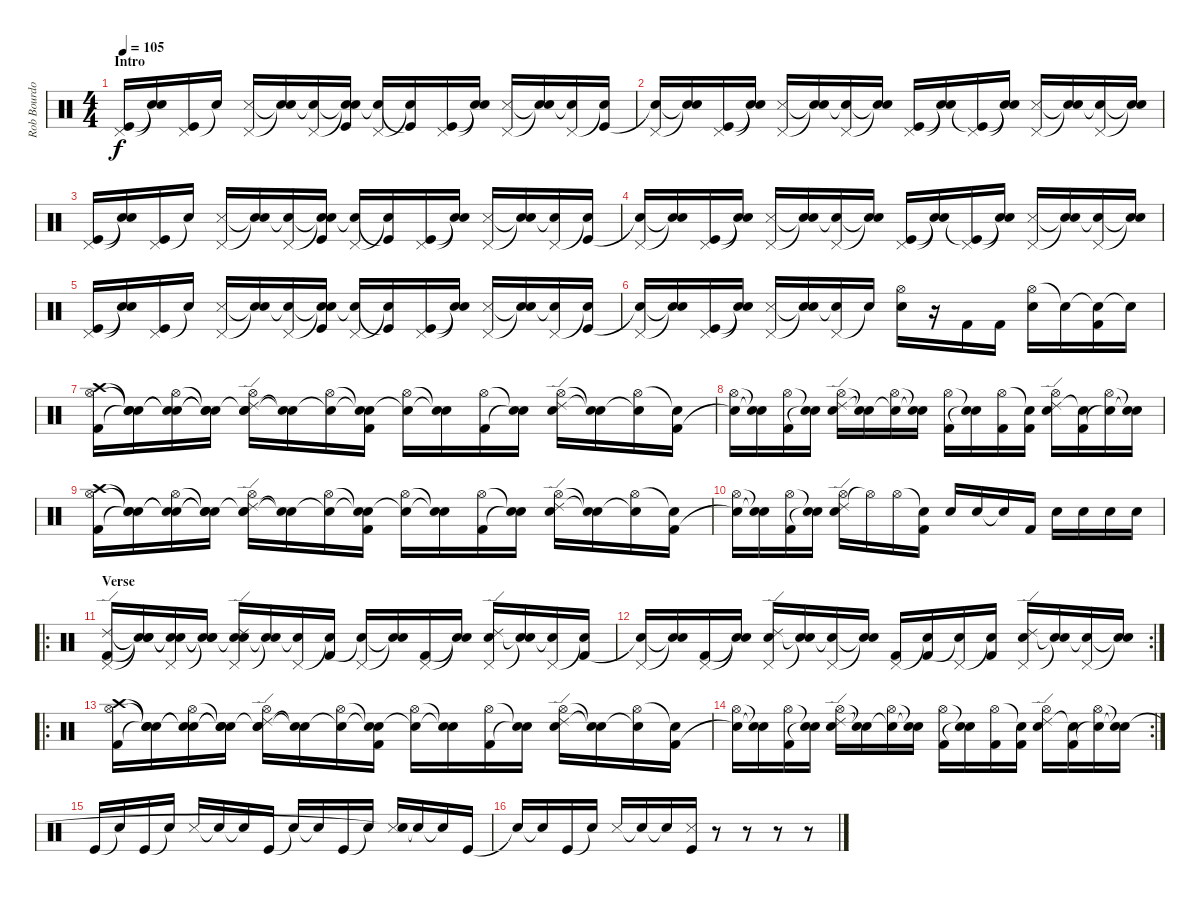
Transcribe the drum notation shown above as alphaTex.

\track ("Rob Bourdon" "Rob Bourdo") {instrument percussion}
\staff {score}
\articulation defaults
\ts (4 4)
\section ("" "Intro")
\tempo 105
\clef neutral
\ks c
("Pedal Hi-Hat (hit)" "Kick (hit)").16{dy f volume 5} ("Snare (hit)"{t} "Snare (hit)"{t}).16 ("Pedal Hi-Hat (hit)" "Kick (hit)").16 "Snare (hit)"{t}.16 ("Pedal Hi-Hat (hit)" "Snare (side stick) 3").16 ("Snare (hit)"{t} "Snare (hit)"{t}).16 ("Pedal Hi-Hat (hit)" "Snare (hit)"{t}).16 ("Snare (hit)"{t} "Snare (hit)"{t} "Kick (hit)").16 ("Pedal Hi-Hat (hit)" "Snare (hit)"{t}).16{volume 6} ("Snare (hit)"{t} "Kick (hit)"{t}).16 ("Pedal Hi-Hat (hit)" "Kick (hit)").16 ("Snare (hit)"{t} "Snare (hit)"{t}).16 ("Pedal Hi-Hat (hit)" "Snare (side stick) 3").16 ("Snare (hit)"{t} "Snare (hit)"{t}).16 ("Pedal Hi-Hat (hit)" "Snare (hit)"{t}).16 ("Snare (hit)"{t} "Kick (hit)").16 |
("Pedal Hi-Hat (hit)" "Snare (hit)"{t}).16{volume 7} ("Snare (hit)"{t} "Snare (hit)"{t}).16 ("Pedal Hi-Hat (hit)" "Kick (hit)").16 ("Snare (hit)"{t} "Snare (hit)"{t}).16 ("Pedal Hi-Hat (hit)" "Snare (side stick) 3").16 ("Snare (hit)"{t} "Snare (hit)"{t}).16 ("Pedal Hi-Hat (hit)" "Snare (hit)"{t}).16 ("Snare (hit)"{t} "Snare (hit)"{t}).16 ("Pedal Hi-Hat (hit)" "Kick (hit)").16 ("Snare (hit)"{t} "Snare (hit)"{t}).16 ("Pedal Hi-Hat (hit)" "Kick (hit)"{t}).16 ("Snare (hit)"{t} "Snare (hit)"{t}).16 ("Pedal Hi-Hat (hit)" "Snare (side stick) 3").16 ("Snare (hit)"{t} "Snare (hit)"{t}).16 ("Pedal Hi-Hat (hit)" "Snare (hit)"{t}).16 ("Snare (hit)"{t} "Snare (hit)"{t}).16 |
("Pedal Hi-Hat (hit)" "Kick (hit)").16{volume 8} ("Snare (hit)"{t} "Snare (hit)"{t}).16 ("Pedal Hi-Hat (hit)" "Kick (hit)").16 "Snare (hit)"{t}.16 ("Pedal Hi-Hat (hit)" "Snare (side stick) 3").16 ("Snare (hit)"{t} "Snare (hit)"{t}).16 ("Pedal Hi-Hat (hit)" "Snare (hit)"{t}).16 ("Snare (hit)"{t} "Snare (hit)"{t} "Kick (hit)").16 ("Pedal Hi-Hat (hit)" "Snare (hit)"{t}).16 ("Snare (hit)"{t} "Kick (hit)"{t}).16 ("Pedal Hi-Hat (hit)" "Kick (hit)").16 ("Snare (hit)"{t} "Snare (hit)"{t}).16 ("Pedal Hi-Hat (hit)" "Snare (side stick) 3").16 ("Snare (hit)"{t} "Snare (hit)"{t}).16 ("Pedal Hi-Hat (hit)" "Snare (hit)"{t}).16 ("Snare (hit)"{t} "Kick (hit)").16 |
("Pedal Hi-Hat (hit)" "Snare (hit)"{t}).16 ("Snare (hit)"{t} "Snare (hit)"{t}).16 ("Pedal Hi-Hat (hit)" "Kick (hit)").16 ("Snare (hit)"{t} "Snare (hit)"{t}).16 ("Pedal Hi-Hat (hit)" "Snare (side stick) 3").16 ("Snare (hit)"{t} "Snare (hit)"{t}).16 ("Pedal Hi-Hat (hit)" "Snare (hit)"{t}).16 ("Snare (hit)"{t} "Snare (hit)"{t}).16 ("Pedal Hi-Hat (hit)" "Kick (hit)").16 ("Snare (hit)"{t} "Snare (hit)"{t}).16 ("Pedal Hi-Hat (hit)" "Kick (hit)"{t}).16 ("Snare (hit)"{t} "Snare (hit)"{t}).16 ("Pedal Hi-Hat (hit)" "Snare (side stick) 3").16 ("Snare (hit)"{t} "Snare (hit)"{t}).16 ("Pedal Hi-Hat (hit)" "Snare (hit)"{t}).16 ("Snare (hit)"{t} "Snare (hit)"{t}).16 |
("Pedal Hi-Hat (hit)" "Kick (hit)").16{volume 8} ("Snare (hit)"{t} "Snare (hit)"{t}).16 ("Pedal Hi-Hat (hit)" "Kick (hit)").16 "Snare (hit)"{t}.16 ("Pedal Hi-Hat (hit)" "Snare (side stick) 3").16 ("Snare (hit)"{t} "Snare (hit)"{t}).16 ("Pedal Hi-Hat (hit)" "Snare (hit)"{t}).16 ("Snare (hit)"{t} "Snare (hit)"{t} "Kick (hit)").16 ("Pedal Hi-Hat (hit)" "Snare (hit)"{t}).16 ("Snare (hit)"{t} "Kick (hit)"{t}).16 ("Pedal Hi-Hat (hit)" "Kick (hit)").16 ("Snare (hit)"{t} "Snare (hit)"{t}).16 ("Pedal Hi-Hat (hit)" "Snare (side stick) 3").16 ("Snare (hit)"{t} "Snare (hit)"{t}).16 ("Pedal Hi-Hat (hit)" "Snare (hit)"{t}).16 ("Snare (hit)"{t} "Kick (hit)").16 |
("Pedal Hi-Hat (hit)" "Snare (hit)"{t}).16 ("Snare (hit)"{t} "Snare (hit)"{t}).16 ("Pedal Hi-Hat (hit)" "Kick (hit)").16 ("Snare (hit)"{t} "Snare (hit)"{t}).16 ("Pedal Hi-Hat (hit)" "Snare (side stick) 3").16 ("Snare (hit)"{t} "Snare (hit)"{t}).16 ("Pedal Hi-Hat (hit)" "Snare (hit)"{t}).16 "Snare (hit)"{t}.16 ("Hi-Hat (open)" "Electric Snare (hit)").16{volume 13} r.16 "Kick (hit) 2".16 "Kick (hit) 2".16 ("Hi-Hat (open)" "Electric Snare (hit)").16 "Snare (hit)"{t}.16 ("Snare (hit)"{t} "Kick (hit) 2").16 "Snare (hit)"{t}.16 |
("Crash high (hit)" "Hi-Hat (open)" "Kick (hit) 2").16 ("Snare (hit)"{t} "Snare (hit)"{t} "Snare (hit)"{t}).16 ("Snare (hit)"{t} "Hi-Hat (open)" "Snare (hit)"{t}).16 ("Snare (hit)"{t} "Snare (hit)"{t} "Snare (hit)"{t}).16 ("Snare (hit)"{t} "Ride (edge) 2" "Hi-Hat (open)" "Electric Snare (hit)").16 ("Snare (hit)"{t} "Snare (hit)"{t}).16 ("Hi-Hat (open)" "Snare (hit)"{t}).16 ("Snare (hit)"{t} "Snare (hit)"{t} "Kick (hit) 2").16 ("Hi-Hat (open)" "Snare (hit)"{t}).16 ("Snare (hit)"{t} "Snare (hit)"{t}).16 ("Hi-Hat (open)" "Kick (hit) 2").16 ("Snare (hit)"{t} "Snare (hit)"{t}).16 ("Ride (edge) 2" "Hi-Hat (open)" "Electric Snare (hit)").16 ("Snare (hit)"{t} "Snare (hit)"{t}).16 ("Hi-Hat (open)" "Snare (hit)"{t}).16 ("Snare (hit)"{t} "Kick (hit) 2").16 |
("Hi-Hat (open)" "Snare (hit)"{t}).16 ("Snare (hit)"{t} "Snare (hit)"{t}).16 ("Hi-Hat (open)" "Kick (hit) 2").16 ("Snare (hit)"{t} "Snare (hit)"{t}).16 ("Ride (edge) 2" "Hi-Hat (open)" "Electric Snare (hit)").16 ("Snare (hit)"{t} "Snare (hit)"{t}).16 ("Hi-Hat (open)" "Snare (hit)"{t}).16 ("Snare (hit)"{t} "Snare (hit)"{t}).16 ("Hi-Hat (open)" "Kick (hit) 2").16 ("Snare (hit)"{t} "Snare (hit)"{t}).16 ("Hi-Hat (open)" "Kick (hit) 2").16 ("Snare (hit)"{t} "Kick (hit) 2").16 ("Ride (edge) 2" "Hi-Hat (open)" "Electric Snare (hit)").16 ("Snare (hit)"{t} "Kick (hit) 2").16 ("Hi-Hat (open)" "Snare (hit)"{t}).16 ("Snare (hit)"{t} "Snare (hit)"{t}).16 |
("Crash high (hit)" "Hi-Hat (open)" "Kick (hit) 2").16 ("Snare (hit)"{t} "Snare (hit)"{t} "Snare (hit)"{t}).16 ("Snare (hit)"{t} "Hi-Hat (open)" "Snare (hit)"{t}).16 ("Snare (hit)"{t} "Snare (hit)"{t} "Snare (hit)"{t}).16 ("Snare (hit)"{t} "Ride (edge) 2" "Hi-Hat (open)" "Electric Snare (hit)").16 ("Snare (hit)"{t} "Snare (hit)"{t}).16 ("Hi-Hat (open)" "Snare (hit)"{t}).16 ("Snare (hit)"{t} "Snare (hit)"{t} "Kick (hit) 2").16 ("Hi-Hat (open)" "Snare (hit)"{t}).16 ("Snare (hit)"{t} "Snare (hit)"{t}).16 ("Hi-Hat (open)" "Kick (hit) 2").16 ("Snare (hit)"{t} "Snare (hit)"{t}).16 ("Ride (edge) 2" "Hi-Hat (open)" "Electric Snare (hit)").16 ("Snare (hit)"{t} "Snare (hit)"{t}).16 ("Hi-Hat (open)" "Snare (hit)"{t}).16 ("Snare (hit)"{t} "Kick (hit) 2").16 |
("Hi-Hat (open)" "Snare (hit)"{t}).16 ("Snare (hit)"{t} "Snare (hit)"{t}).16 ("Hi-Hat (open)" "Kick (hit) 2").16 ("Snare (hit)"{t} "Snare (hit)"{t}).16 ("Ride (edge) 2" "Hi-Hat (open)" "Electric Snare (hit)").16 "Hi-Hat (open)"{t}.16 "Hi-Hat (open)".16 ("Snare (hit)"{t} "Kick (hit) 2").16 "Electric Snare (hit)".16 "Electric Snare (hit)".16 "Snare (hit)"{t}.16 "Kick (hit) 2".16 "Electric Snare (hit)".16 "Electric Snare (hit)".16 "Electric Snare (hit)".16 "Electric Snare (hit)".16 |
\ro
\section ("" "Verse")
("Ride (edge) 2" "Pedal Hi-Hat (hit)" "Kick (hit) 2").16 ("Snare (hit)"{t} "Snare (hit)"{t} "Snare (hit)"{t}).16 ("Snare (hit)"{t} "Pedal Hi-Hat (hit)" "Snare (hit)"{t}).16 ("Snare (hit)"{t} "Snare (hit)"{t} "Snare (hit)"{t}).16 ("Snare (hit)"{t} "Pedal Hi-Hat (hit)" "Ride (edge) 2" "Electric Snare (hit)").16 ("Snare (hit)"{t} "Snare (hit)"{t}).16 ("Pedal Hi-Hat (hit)" "Snare (hit)"{t}).16 ("Snare (hit)"{t} "Kick (hit) 2").16 ("Pedal Hi-Hat (hit)" "Snare (hit)"{t}).16 ("Snare (hit)"{t} "Snare (hit)"{t}).16 ("Pedal Hi-Hat (hit)" "Kick (hit) 2").16 ("Snare (hit)"{t} "Snare (hit)"{t}).16 ("Pedal Hi-Hat (hit)" "Ride (edge) 2" "Electric Snare (hit)").16 ("Snare (hit)"{t} "Snare (hit)"{t}).16 ("Pedal Hi-Hat (hit)" "Snare (hit)"{t}).16 ("Snare (hit)"{t} "Kick (hit) 2").16 |
\rc 2
("Pedal Hi-Hat (hit)" "Snare (hit)"{t}).16 ("Snare (hit)"{t} "Snare (hit)"{t}).16 ("Pedal Hi-Hat (hit)" "Kick (hit) 2").16 ("Snare (hit)"{t} "Snare (hit)"{t}).16 ("Pedal Hi-Hat (hit)" "Ride (edge) 2" "Electric Snare (hit)").16 ("Snare (hit)"{t} "Snare (hit)"{t}).16 ("Pedal Hi-Hat (hit)" "Snare (hit)"{t}).16 ("Snare (hit)"{t} "Snare (hit)"{t}).16 ("Pedal Hi-Hat (hit)" "Kick (hit) 2").16 ("Snare (hit)"{t} "Kick (hit) 2").16 ("Pedal Hi-Hat (hit)" "Snare (hit)"{t}).16 ("Snare (hit)"{t} "Kick (hit) 2").16 ("Pedal Hi-Hat (hit)" "Ride (edge) 2" "Electric Snare (hit)").16 ("Snare (hit)"{t} "Snare (hit)"{t}).16 ("Pedal Hi-Hat (hit)" "Snare (hit)"{t}).16 ("Snare (hit)"{t} "Snare (hit)"{t}).16 |
\ro
("Crash high (hit)" "Hi-Hat (open)" "Kick (hit) 2").16 ("Snare (hit)"{t} "Snare (hit)"{t} "Snare (hit)"{t}).16 ("Snare (hit)"{t} "Hi-Hat (open)" "Snare (hit)"{t}).16 ("Snare (hit)"{t} "Snare (hit)"{t} "Snare (hit)"{t}).16 ("Snare (hit)"{t} "Ride (edge) 2" "Hi-Hat (open)" "Electric Snare (hit)").16 ("Snare (hit)"{t} "Snare (hit)"{t}).16 ("Hi-Hat (open)" "Snare (hit)"{t}).16 ("Snare (hit)"{t} "Snare (hit)"{t} "Kick (hit) 2").16 ("Hi-Hat (open)" "Snare (hit)"{t}).16 ("Snare (hit)"{t} "Snare (hit)"{t}).16 ("Hi-Hat (open)" "Kick (hit) 2").16 ("Snare (hit)"{t} "Snare (hit)"{t}).16 ("Ride (edge) 2" "Hi-Hat (open)" "Electric Snare (hit)").16 ("Snare (hit)"{t} "Snare (hit)"{t}).16 ("Hi-Hat (open)" "Snare (hit)"{t}).16 ("Snare (hit)"{t} "Kick (hit) 2").16 |
\rc 2
("Hi-Hat (open)" "Snare (hit)"{t}).16 ("Snare (hit)"{t} "Snare (hit)"{t}).16 ("Hi-Hat (open)" "Kick (hit) 2").16 ("Snare (hit)"{t} "Snare (hit)"{t}).16 ("Ride (edge) 2" "Hi-Hat (open)" "Electric Snare (hit)").16 ("Snare (hit)"{t} "Snare (hit)"{t}).16 ("Hi-Hat (open)" "Snare (hit)"{t}).16 ("Snare (hit)"{t} "Snare (hit)"{t}).16 ("Hi-Hat (open)" "Kick (hit) 2").16 ("Snare (hit)"{t} "Snare (hit)"{t}).16 ("Hi-Hat (open)" "Kick (hit) 2").16 ("Snare (hit)"{t} "Kick (hit) 2").16 ("Ride (edge) 2" "Hi-Hat (open)" "Electric Snare (hit)").16 ("Snare (hit)"{t} "Kick (hit) 2").16 ("Hi-Hat (open)" "Snare (hit)"{t}).16 ("Snare (hit)"{t} "Snare (hit)"{t}).16 |
"Kick (hit)".16 "Snare (hit)"{t}.16 "Kick (hit)".16 "Snare (hit)"{t}.16 "Snare (side stick) 3".16 "Snare (hit)"{t}.16 "Snare (hit)"{t}.16 "Kick (hit)".16 "Snare (hit)"{t}.16 "Snare (hit)"{t}.16 "Kick (hit)".16 "Snare (hit)"{t}.16 ("Snare (side stick) 3" "Snare (hit)"{t}).16 "Snare (hit)"{t}.16 "Snare (hit)"{t}.16 "Kick (hit)".16 |
"Snare (hit)"{t}.16 "Snare (hit)"{t}.16 "Kick (hit)".16 "Snare (hit)"{t}.16 "Snare (side stick) 3".16 "Snare (hit)"{t}.16 "Snare (hit)"{t}.16 ("Snare (side stick) 3" "Kick (hit)").16 r.8 r.8 r.8 r.8
